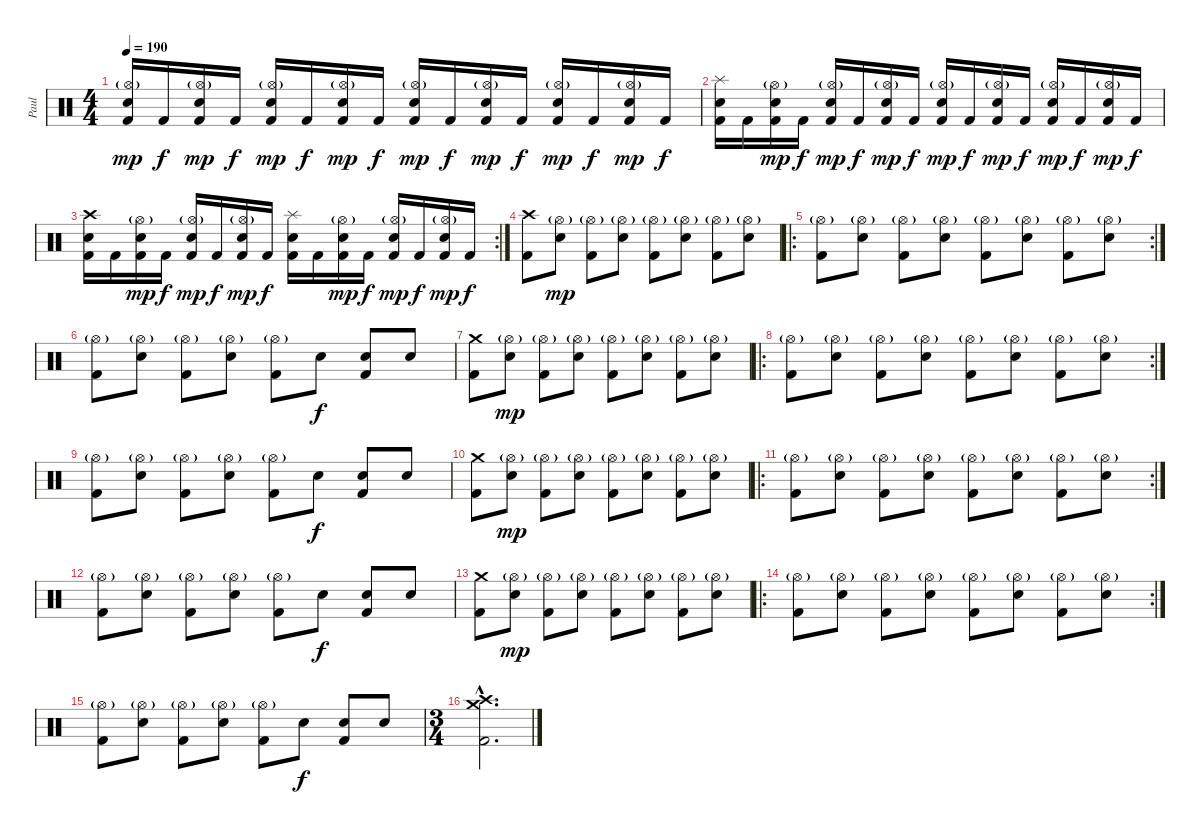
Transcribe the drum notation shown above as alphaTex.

\track ("Paul" "Paul") {instrument percussion}
\staff {score}
\articulation defaults
\ts (4 4)
\tempo 190
\clef neutral
\ks c
("Electric Snare (hit)" "Hi-Hat (open)"{g} "Kick (hit) 2").16{dy mp} "Kick (hit) 2".16{dy f} ("Electric Snare (hit)" "Hi-Hat (open)"{g} "Kick (hit) 2").16{dy mp} "Kick (hit) 2".16{dy f} ("Electric Snare (hit)" "Hi-Hat (open)"{g} "Kick (hit) 2").16{dy mp} "Kick (hit) 2".16{dy f} ("Electric Snare (hit)" "Hi-Hat (open)"{g} "Kick (hit) 2").16{dy mp} "Kick (hit) 2".16{dy f} ("Electric Snare (hit)" "Hi-Hat (open)"{g} "Kick (hit) 2").16{dy mp} "Kick (hit) 2".16{dy f} ("Electric Snare (hit)" "Hi-Hat (open)"{g} "Kick (hit) 2").16{dy mp} "Kick (hit) 2".16{dy f} ("Electric Snare (hit)" "Hi-Hat (open)"{g} "Kick (hit) 2").16{dy mp} "Kick (hit) 2".16{dy f} ("Electric Snare (hit)" "Hi-Hat (open)"{g} "Kick (hit) 2").16{dy mp} "Kick (hit) 2".16{dy f} |
("Electric Snare (hit)" "Splash (hit)" "Kick (hit) 2").16 "Kick (hit) 2".16 ("Electric Snare (hit)" "Hi-Hat (open)"{g} "Kick (hit) 2").16{dy mp} "Kick (hit) 2".16{dy f} ("Electric Snare (hit)" "Hi-Hat (open)"{g} "Kick (hit) 2").16{dy mp} "Kick (hit) 2".16{dy f} ("Electric Snare (hit)" "Hi-Hat (open)"{g} "Kick (hit) 2").16{dy mp} "Kick (hit) 2".16{dy f} ("Electric Snare (hit)" "Hi-Hat (open)"{g} "Kick (hit) 2").16{dy mp} "Kick (hit) 2".16{dy f} ("Electric Snare (hit)" "Hi-Hat (open)"{g} "Kick (hit) 2").16{dy mp} "Kick (hit) 2".16{dy f} ("Electric Snare (hit)" "Hi-Hat (open)"{g} "Kick (hit) 2").16{dy mp} "Kick (hit) 2".16{dy f} ("Electric Snare (hit)" "Hi-Hat (open)"{g} "Kick (hit) 2").16{dy mp} "Kick (hit) 2".16{dy f} |
\rc 2
("Electric Snare (hit)" "Crash high (hit)" "Kick (hit) 2").16 "Kick (hit) 2".16 ("Electric Snare (hit)" "Hi-Hat (open)"{g} "Kick (hit) 2").16{dy mp} "Kick (hit) 2".16{dy f} ("Electric Snare (hit)" "Hi-Hat (open)"{g} "Kick (hit) 2").16{dy mp} "Kick (hit) 2".16{dy f} ("Electric Snare (hit)" "Hi-Hat (open)"{g} "Kick (hit) 2").16{dy mp} "Kick (hit) 2".16{dy f} ("Electric Snare (hit)" "Splash (hit)" "Kick (hit) 2").16 "Kick (hit) 2".16 ("Electric Snare (hit)" "Hi-Hat (open)"{g} "Kick (hit) 2").16{dy mp} "Kick (hit) 2".16{dy f} ("Electric Snare (hit)" "Hi-Hat (open)"{g} "Kick (hit) 2").16{dy mp} "Kick (hit) 2".16{dy f} ("Electric Snare (hit)" "Hi-Hat (open)"{g} "Kick (hit) 2").16{dy mp} "Kick (hit) 2".16{dy f} |
("Crash high (hit)" "Kick (hit) 2").8 ("Hi-Hat (open)"{g} "Electric Snare (hit)").8{dy mp} ("Hi-Hat (open)"{g} "Kick (hit) 2").8 ("Hi-Hat (open)"{g} "Electric Snare (hit)").8 ("Hi-Hat (open)"{g} "Kick (hit) 2").8 ("Hi-Hat (open)"{g} "Electric Snare (hit)").8 ("Hi-Hat (open)"{g} "Kick (hit) 2").8 ("Hi-Hat (open)"{g} "Electric Snare (hit)").8 |
\ro
\rc 2
("Hi-Hat (open)"{g} "Kick (hit) 2").8 ("Hi-Hat (open)"{g} "Electric Snare (hit)").8 ("Hi-Hat (open)"{g} "Kick (hit) 2").8 ("Hi-Hat (open)"{g} "Electric Snare (hit)").8 ("Hi-Hat (open)"{g} "Kick (hit) 2").8 ("Hi-Hat (open)"{g} "Electric Snare (hit)").8 ("Hi-Hat (open)"{g} "Kick (hit) 2").8 ("Hi-Hat (open)"{g} "Electric Snare (hit)").8 |
("Hi-Hat (open)"{g} "Kick (hit) 2").8 ("Electric Snare (hit)" "Hi-Hat (open)"{g}).8 ("Hi-Hat (open)"{g} "Kick (hit) 2").8 ("Electric Snare (hit)" "Hi-Hat (open)"{g}).8 ("Hi-Hat (open)"{g} "Kick (hit) 2").8 "Electric Snare (hit)".8{dy f} ("Electric Snare (hit)" "Kick (hit) 2").8 "Electric Snare (hit)".8 |
("Crash medium (hit)" "Kick (hit) 2").8 ("Hi-Hat (open)"{g} "Electric Snare (hit)").8{dy mp} ("Hi-Hat (open)"{g} "Kick (hit) 2").8 ("Hi-Hat (open)"{g} "Electric Snare (hit)").8 ("Hi-Hat (open)"{g} "Kick (hit) 2").8 ("Hi-Hat (open)"{g} "Electric Snare (hit)").8 ("Hi-Hat (open)"{g} "Kick (hit) 2").8 ("Hi-Hat (open)"{g} "Electric Snare (hit)").8 |
\ro
\rc 2
("Hi-Hat (open)"{g} "Kick (hit) 2").8 ("Hi-Hat (open)"{g} "Electric Snare (hit)").8 ("Hi-Hat (open)"{g} "Kick (hit) 2").8 ("Hi-Hat (open)"{g} "Electric Snare (hit)").8 ("Hi-Hat (open)"{g} "Kick (hit) 2").8 ("Hi-Hat (open)"{g} "Electric Snare (hit)").8 ("Hi-Hat (open)"{g} "Kick (hit) 2").8 ("Hi-Hat (open)"{g} "Electric Snare (hit)").8 |
("Hi-Hat (open)"{g} "Kick (hit) 2").8 ("Electric Snare (hit)" "Hi-Hat (open)"{g}).8 ("Hi-Hat (open)"{g} "Kick (hit) 2").8 ("Electric Snare (hit)" "Hi-Hat (open)"{g}).8 ("Hi-Hat (open)"{g} "Kick (hit) 2").8 "Electric Snare (hit)".8{dy f} ("Electric Snare (hit)" "Kick (hit) 2").8 "Electric Snare (hit)".8 |
("Crash medium (hit)" "Kick (hit) 2").8 ("Hi-Hat (open)"{g} "Electric Snare (hit)").8{dy mp} ("Hi-Hat (open)"{g} "Kick (hit) 2").8 ("Hi-Hat (open)"{g} "Electric Snare (hit)").8 ("Hi-Hat (open)"{g} "Kick (hit) 2").8 ("Hi-Hat (open)"{g} "Electric Snare (hit)").8 ("Hi-Hat (open)"{g} "Kick (hit) 2").8 ("Hi-Hat (open)"{g} "Electric Snare (hit)").8 |
\ro
\rc 2
("Hi-Hat (open)"{g} "Kick (hit) 2").8 ("Hi-Hat (open)"{g} "Electric Snare (hit)").8 ("Hi-Hat (open)"{g} "Kick (hit) 2").8 ("Hi-Hat (open)"{g} "Electric Snare (hit)").8 ("Hi-Hat (open)"{g} "Kick (hit) 2").8 ("Hi-Hat (open)"{g} "Electric Snare (hit)").8 ("Hi-Hat (open)"{g} "Kick (hit) 2").8 ("Hi-Hat (open)"{g} "Electric Snare (hit)").8 |
("Hi-Hat (open)"{g} "Kick (hit) 2").8 ("Electric Snare (hit)" "Hi-Hat (open)"{g}).8 ("Hi-Hat (open)"{g} "Kick (hit) 2").8 ("Electric Snare (hit)" "Hi-Hat (open)"{g}).8 ("Hi-Hat (open)"{g} "Kick (hit) 2").8 "Electric Snare (hit)".8{dy f} ("Electric Snare (hit)" "Kick (hit) 2").8 "Electric Snare (hit)".8 |
("Crash medium (hit)" "Kick (hit) 2").8 ("Hi-Hat (open)"{g} "Electric Snare (hit)").8{dy mp} ("Hi-Hat (open)"{g} "Kick (hit) 2").8 ("Hi-Hat (open)"{g} "Electric Snare (hit)").8 ("Hi-Hat (open)"{g} "Kick (hit) 2").8 ("Hi-Hat (open)"{g} "Electric Snare (hit)").8 ("Hi-Hat (open)"{g} "Kick (hit) 2").8 ("Hi-Hat (open)"{g} "Electric Snare (hit)").8 |
\ro
\rc 2
("Hi-Hat (open)"{g} "Kick (hit) 2").8 ("Hi-Hat (open)"{g} "Electric Snare (hit)").8 ("Hi-Hat (open)"{g} "Kick (hit) 2").8 ("Hi-Hat (open)"{g} "Electric Snare (hit)").8 ("Hi-Hat (open)"{g} "Kick (hit) 2").8 ("Hi-Hat (open)"{g} "Electric Snare (hit)").8 ("Hi-Hat (open)"{g} "Kick (hit) 2").8 ("Hi-Hat (open)"{g} "Electric Snare (hit)").8 |
("Hi-Hat (open)"{g} "Kick (hit) 2").8 ("Electric Snare (hit)" "Hi-Hat (open)"{g}).8 ("Hi-Hat (open)"{g} "Kick (hit) 2").8 ("Electric Snare (hit)" "Hi-Hat (open)"{g}).8 ("Hi-Hat (open)"{g} "Kick (hit) 2").8 "Electric Snare (hit)".8{dy f} ("Electric Snare (hit)" "Kick (hit) 2").8 "Electric Snare (hit)".8 |
\ts (3 4)
("Crash high (hit)"{hac} "Crash medium (hit)"{hac} "Kick (hit) 2"{hac}).2{d}
